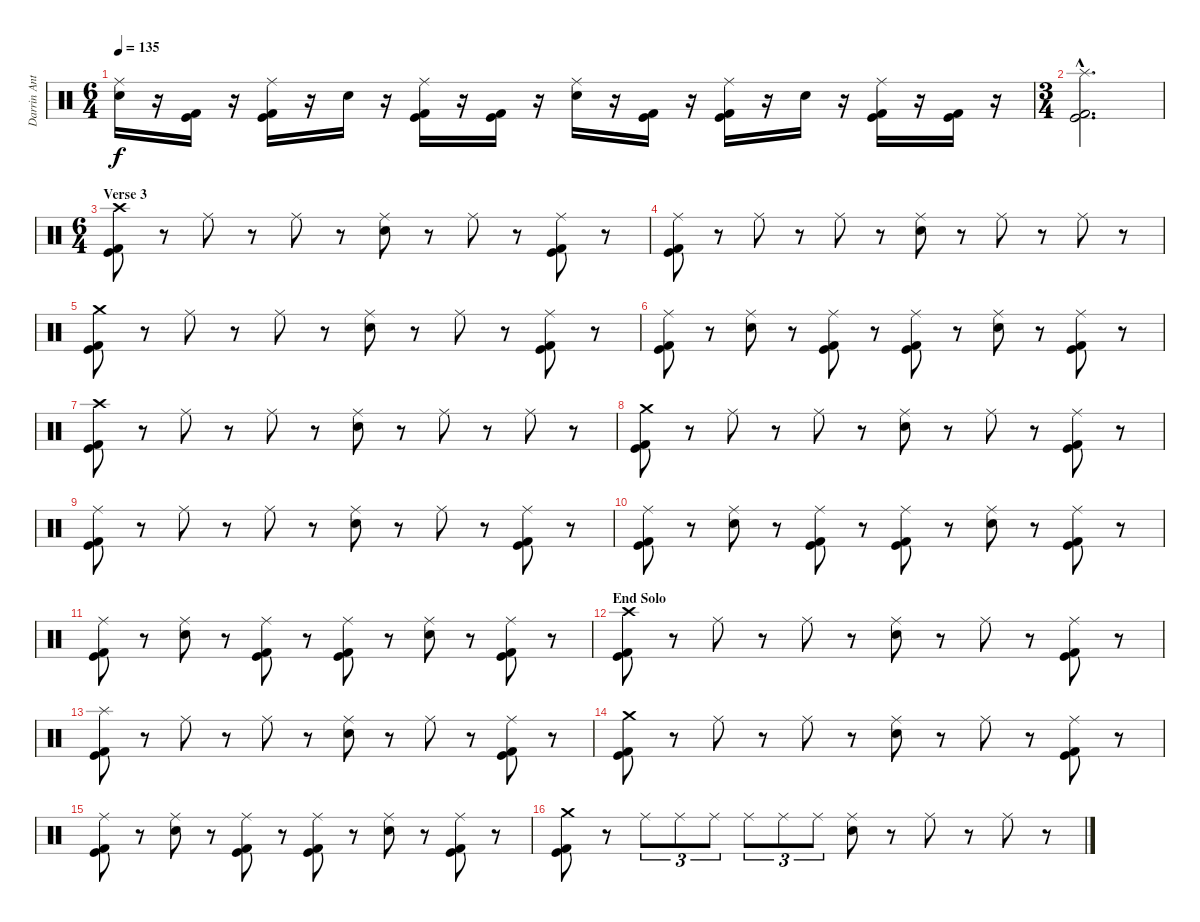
\track ("Darrin Anthony" "Darrin Ant") {instrument percussion}
\staff {score}
\articulation defaults
\ts (6 4)
\tempo 135
\clef neutral
\ks c
("Ride (middle)" "Electric Snare (hit)").16{dy f} r.16 ("Kick (hit)" "Kick (hit) 2").16 r.16 ("Ride (middle)" "Kick (hit)" "Kick (hit) 2").16 r.16 "Electric Snare (hit)".16 r.16 ("Ride (middle)" "Kick (hit)" "Kick (hit) 2").16 r.16 ("Kick (hit)" "Kick (hit) 2").16 r.16 ("Ride (middle)" "Electric Snare (hit)").16 r.16 ("Kick (hit)" "Kick (hit) 2").16 r.16 ("Ride (middle)" "Kick (hit)" "Kick (hit) 2").16 r.16 "Electric Snare (hit)".16 r.16 ("Ride (middle)" "Kick (hit)" "Kick (hit) 2").16 r.16 ("Kick (hit)" "Kick (hit) 2").16 r.16 |
\ts (3 4)
("Splash (hit)"{hac} "Kick (hit)"{hac} "Kick (hit) 2"{hac}).2{d} |
\ts (6 4)
\section ("" "Verse 3")
("Crash high (hit)" "Kick (hit)" "Kick (hit) 2").8 r.8 "Ride (middle)".8 r.8 "Ride (middle)".8 r.8 ("Ride (middle)" "Electric Snare (hit)").8 r.8 "Ride (middle)".8 r.8 ("Ride (middle)" "Kick (hit)" "Kick (hit) 2").8 r.8 |
("Ride (middle)" "Kick (hit)" "Kick (hit) 2").8 r.8 "Ride (middle)".8 r.8 "Ride (middle)".8 r.8 ("Ride (middle)" "Electric Snare (hit)").8 r.8 "Ride (middle)".8 r.8 "Ride (middle)".8 r.8 |
("Crash medium (hit)" "Kick (hit)" "Kick (hit) 2").8 r.8 "Ride (middle)".8 r.8 "Ride (middle)".8 r.8 ("Ride (middle)" "Electric Snare (hit)").8 r.8 "Ride (middle)".8 r.8 ("Ride (middle)" "Kick (hit)" "Kick (hit) 2").8 r.8 |
("Ride (middle)" "Kick (hit)" "Kick (hit) 2").8 r.8 ("Ride (middle)" "Electric Snare (hit)").8 r.8 ("Ride (middle)" "Kick (hit)" "Kick (hit) 2").8 r.8 ("Ride (middle)" "Kick (hit)" "Kick (hit) 2").8 r.8 ("Ride (middle)" "Electric Snare (hit)").8 r.8 ("Ride (middle)" "Kick (hit)" "Kick (hit) 2").8 r.8 |
("Crash high (hit)" "Kick (hit)" "Kick (hit) 2").8 r.8 "Ride (middle)".8 r.8 "Ride (middle)".8 r.8 ("Ride (middle)" "Electric Snare (hit)").8 r.8 "Ride (middle)".8 r.8 "Ride (middle)".8 r.8 |
("Crash medium (hit)" "Kick (hit)" "Kick (hit) 2").8 r.8 "Ride (middle)".8 r.8 "Ride (middle)".8 r.8 ("Ride (middle)" "Electric Snare (hit)").8 r.8 "Ride (middle)".8 r.8 ("Ride (middle)" "Kick (hit)" "Kick (hit) 2").8 r.8 |
("Ride (middle)" "Kick (hit)" "Kick (hit) 2").8 r.8 "Ride (middle)".8 r.8 "Ride (middle)".8 r.8 ("Ride (middle)" "Electric Snare (hit)").8 r.8 "Ride (middle)".8 r.8 ("Ride (middle)" "Kick (hit)" "Kick (hit) 2").8 r.8 |
("Ride (middle)" "Kick (hit)" "Kick (hit) 2").8 r.8 ("Ride (middle)" "Electric Snare (hit)").8 r.8 ("Ride (middle)" "Kick (hit)" "Kick (hit) 2").8 r.8 ("Ride (middle)" "Kick (hit)" "Kick (hit) 2").8 r.8 ("Ride (middle)" "Electric Snare (hit)").8 r.8 ("Ride (middle)" "Kick (hit)" "Kick (hit) 2").8 r.8 |
("Ride (middle)" "Kick (hit)" "Kick (hit) 2").8 r.8 ("Ride (middle)" "Electric Snare (hit)").8 r.8 ("Ride (middle)" "Kick (hit)" "Kick (hit) 2").8 r.8 ("Ride (middle)" "Kick (hit)" "Kick (hit) 2").8 r.8 ("Ride (middle)" "Electric Snare (hit)").8 r.8 ("Ride (middle)" "Kick (hit)" "Kick (hit) 2").8 r.8 |
\section ("" "End Solo")
("Crash high (hit)" "Kick (hit)" "Kick (hit) 2").8 r.8 "Ride (middle)".8 r.8 "Ride (middle)".8 r.8 ("Ride (middle)" "Electric Snare (hit)").8 r.8 "Ride (middle)".8 r.8 ("Ride (middle)" "Kick (hit)" "Kick (hit) 2").8 r.8 |
("Splash (hit)" "Kick (hit)" "Kick (hit) 2").8 r.8 "Ride (middle)".8 r.8 "Ride (middle)".8 r.8 ("Ride (middle)" "Electric Snare (hit)").8 r.8 "Ride (middle)".8 r.8 ("Ride (middle)" "Kick (hit)" "Kick (hit) 2").8 r.8 |
("Crash medium (hit)" "Kick (hit)" "Kick (hit) 2").8 r.8 "Ride (middle)".8 r.8 "Ride (middle)".8 r.8 ("Ride (middle)" "Electric Snare (hit)").8 r.8 "Ride (middle)".8 r.8 ("Ride (middle)" "Kick (hit)" "Kick (hit) 2").8 r.8 |
("Ride (middle)" "Kick (hit)" "Kick (hit) 2").8 r.8 ("Ride (middle)" "Electric Snare (hit)").8 r.8 ("Ride (middle)" "Kick (hit)" "Kick (hit) 2").8 r.8 ("Ride (middle)" "Kick (hit)" "Kick (hit) 2").8 r.8 ("Ride (middle)" "Electric Snare (hit)").8 r.8 ("Ride (middle)" "Kick (hit)" "Kick (hit) 2").8 r.8 |
("Crash medium (hit)" "Kick (hit)" "Kick (hit) 2").8 r.8 "Ride (middle)".8{tu (3 2)} "Ride (middle)".8{tu (3 2)} "Ride (middle)".8{tu (3 2)} "Ride (middle)".8{tu (3 2)} "Ride (middle)".8{tu (3 2)} "Ride (middle)".8{tu (3 2)} ("Ride (middle)" "Electric Snare (hit)").8 r.8 "Ride (middle)".8 r.8 "Ride (middle)".8 r.8
